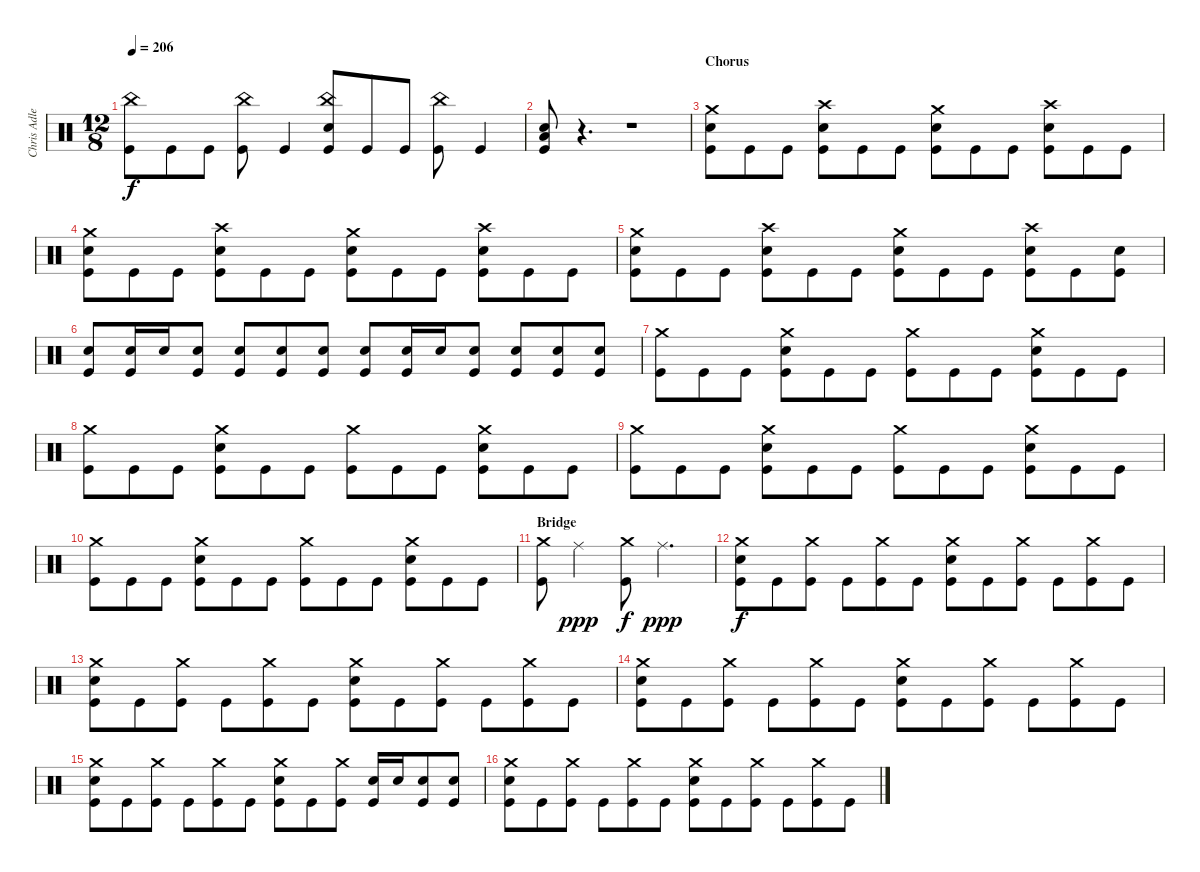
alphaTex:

\track ("Chris Adler" "Chris Adle") {instrument percussion}
\staff {score}
\articulation defaults
\ts (12 8)
\tempo 206
\clef neutral
\ks c
("Kick (hit)" "China (hit)").8{dy f} "Kick (hit)".8 "Kick (hit)".8 ("Kick (hit)" "China (hit)").8 "Kick (hit)".4 ("Snare (hit) 2" "Kick (hit)" "China (hit)").8 "Kick (hit)".8 "Kick (hit)".8 ("Kick (hit)" "China (hit)").8 "Kick (hit)".4 |
("Snare (hit) 2" "Kick (hit)" "Low Floor Tom (hit)").8 r.4{d} r.1 |
\section ("" "Chorus")
("Crash medium (hit)" "Snare (hit) 2" "Kick (hit)").8 "Kick (hit)".8 "Kick (hit)".8 ("Crash high (hit)" "Snare (hit) 2" "Kick (hit)").8 "Kick (hit)".8 "Kick (hit)".8 ("Crash medium (hit)" "Snare (hit) 2" "Kick (hit)").8 "Kick (hit)".8 "Kick (hit)".8 ("Crash high (hit)" "Snare (hit) 2" "Kick (hit)").8 "Kick (hit)".8 "Kick (hit)".8 |
("Crash medium (hit)" "Snare (hit) 2" "Kick (hit)").8 "Kick (hit)".8 "Kick (hit)".8 ("Crash high (hit)" "Snare (hit) 2" "Kick (hit)").8 "Kick (hit)".8 "Kick (hit)".8 ("Crash medium (hit)" "Snare (hit) 2" "Kick (hit)").8 "Kick (hit)".8 "Kick (hit)".8 ("Crash high (hit)" "Snare (hit) 2" "Kick (hit)").8 "Kick (hit)".8 "Kick (hit)".8 |
("Crash medium (hit)" "Snare (hit) 2" "Kick (hit)").8 "Kick (hit)".8 "Kick (hit)".8 ("Crash high (hit)" "Snare (hit) 2" "Kick (hit)").8 "Kick (hit)".8 "Kick (hit)".8 ("Crash medium (hit)" "Snare (hit) 2" "Kick (hit)").8 "Kick (hit)".8 "Kick (hit)".8 ("Crash high (hit)" "Snare (hit) 2" "Kick (hit)").8 "Kick (hit)".8 ("Snare (hit) 2" "Kick (hit)").8 |
("Snare (hit) 2" "Kick (hit)").8 ("Snare (hit) 2" "Kick (hit)").16 "Snare (hit) 2".16 ("Snare (hit) 2" "Kick (hit)").8 ("Snare (hit) 2" "Kick (hit)").8 ("Snare (hit) 2" "Kick (hit)").8 ("Snare (hit) 2" "Kick (hit)").8 ("Snare (hit) 2" "Kick (hit)").8 ("Snare (hit) 2" "Kick (hit)").16 "Snare (hit) 2".16 ("Snare (hit) 2" "Kick (hit)").8 ("Snare (hit) 2" "Kick (hit)").8 ("Snare (hit) 2" "Kick (hit)").8 ("Snare (hit) 2" "Kick (hit)").8 |
("Kick (hit)" "Crash medium (hit)").8 "Kick (hit)".8 "Kick (hit)".8 ("Snare (hit) 2" "Kick (hit)" "Crash medium (hit)").8 "Kick (hit)".8 "Kick (hit)".8 ("Kick (hit)" "Crash medium (hit)").8 "Kick (hit)".8 "Kick (hit)".8 ("Snare (hit) 2" "Kick (hit)" "Crash medium (hit)").8 "Kick (hit)".8 "Kick (hit)".8 |
("Kick (hit)" "Crash medium (hit)").8 "Kick (hit)".8 "Kick (hit)".8 ("Snare (hit) 2" "Kick (hit)" "Crash medium (hit)").8 "Kick (hit)".8 "Kick (hit)".8 ("Kick (hit)" "Crash medium (hit)").8 "Kick (hit)".8 "Kick (hit)".8 ("Snare (hit) 2" "Kick (hit)" "Crash medium (hit)").8 "Kick (hit)".8 "Kick (hit)".8 |
("Kick (hit)" "Crash medium (hit)").8 "Kick (hit)".8 "Kick (hit)".8 ("Snare (hit) 2" "Kick (hit)" "Crash medium (hit)").8 "Kick (hit)".8 "Kick (hit)".8 ("Kick (hit)" "Crash medium (hit)").8 "Kick (hit)".8 "Kick (hit)".8 ("Snare (hit) 2" "Kick (hit)" "Crash medium (hit)").8 "Kick (hit)".8 "Kick (hit)".8 |
("Kick (hit)" "Crash medium (hit)").8 "Kick (hit)".8 "Kick (hit)".8 ("Snare (hit) 2" "Kick (hit)" "Crash medium (hit)").8 "Kick (hit)".8 "Kick (hit)".8 ("Kick (hit)" "Crash medium (hit)").8 "Kick (hit)".8 "Kick (hit)".8 ("Snare (hit) 2" "Kick (hit)" "Crash medium (hit)").8 "Kick (hit)".8 "Kick (hit)".8 |
\section ("" "Bridge")
("Kick (hit)" "Crash medium (hit)").8 "Ride (middle)".2{dy ppp} ("Kick (hit)" "Crash medium (hit)").8{dy f} "Ride (middle)".2{d dy ppp} |
("Snare (hit) 2" "Kick (hit)" "Crash medium (hit)").8{dy f} "Kick (hit)".8 ("Kick (hit)" "Crash medium (hit)").8 "Kick (hit)".8 ("Kick (hit)" "Crash medium (hit)").8 "Kick (hit)".8 ("Snare (hit) 2" "Kick (hit)" "Crash medium (hit)").8 "Kick (hit)".8 ("Kick (hit)" "Crash medium (hit)").8 "Kick (hit)".8 ("Kick (hit)" "Crash medium (hit)").8 "Kick (hit)".8 |
("Snare (hit) 2" "Kick (hit)" "Crash medium (hit)").8 "Kick (hit)".8 ("Kick (hit)" "Crash medium (hit)").8 "Kick (hit)".8 ("Kick (hit)" "Crash medium (hit)").8 "Kick (hit)".8 ("Snare (hit) 2" "Kick (hit)" "Crash medium (hit)").8 "Kick (hit)".8 ("Kick (hit)" "Crash medium (hit)").8 "Kick (hit)".8 ("Kick (hit)" "Crash medium (hit)").8 "Kick (hit)".8 |
("Snare (hit) 2" "Kick (hit)" "Crash medium (hit)").8 "Kick (hit)".8 ("Kick (hit)" "Crash medium (hit)").8 "Kick (hit)".8 ("Kick (hit)" "Crash medium (hit)").8 "Kick (hit)".8 ("Snare (hit) 2" "Kick (hit)" "Crash medium (hit)").8 "Kick (hit)".8 ("Kick (hit)" "Crash medium (hit)").8 "Kick (hit)".8 ("Kick (hit)" "Crash medium (hit)").8 "Kick (hit)".8 |
("Snare (hit) 2" "Kick (hit)" "Crash medium (hit)").8 "Kick (hit)".8 ("Kick (hit)" "Crash medium (hit)").8 "Kick (hit)".8 ("Kick (hit)" "Crash medium (hit)").8 "Kick (hit)".8 ("Snare (hit) 2" "Kick (hit)" "Crash medium (hit)").8 "Kick (hit)".8 ("Kick (hit)" "Crash medium (hit)").8 ("Snare (hit) 2" "Kick (hit)").16 "Snare (hit) 2".16 ("Snare (hit) 2" "Kick (hit)").8 ("Snare (hit) 2" "Kick (hit)").8 |
("Snare (hit) 2" "Kick (hit)" "Crash medium (hit)").8 "Kick (hit)".8 ("Kick (hit)" "Crash medium (hit)").8 "Kick (hit)".8 ("Kick (hit)" "Crash medium (hit)").8 "Kick (hit)".8 ("Snare (hit) 2" "Kick (hit)" "Crash medium (hit)").8 "Kick (hit)".8 ("Kick (hit)" "Crash medium (hit)").8 "Kick (hit)".8 ("Kick (hit)" "Crash medium (hit)").8 "Kick (hit)".8
